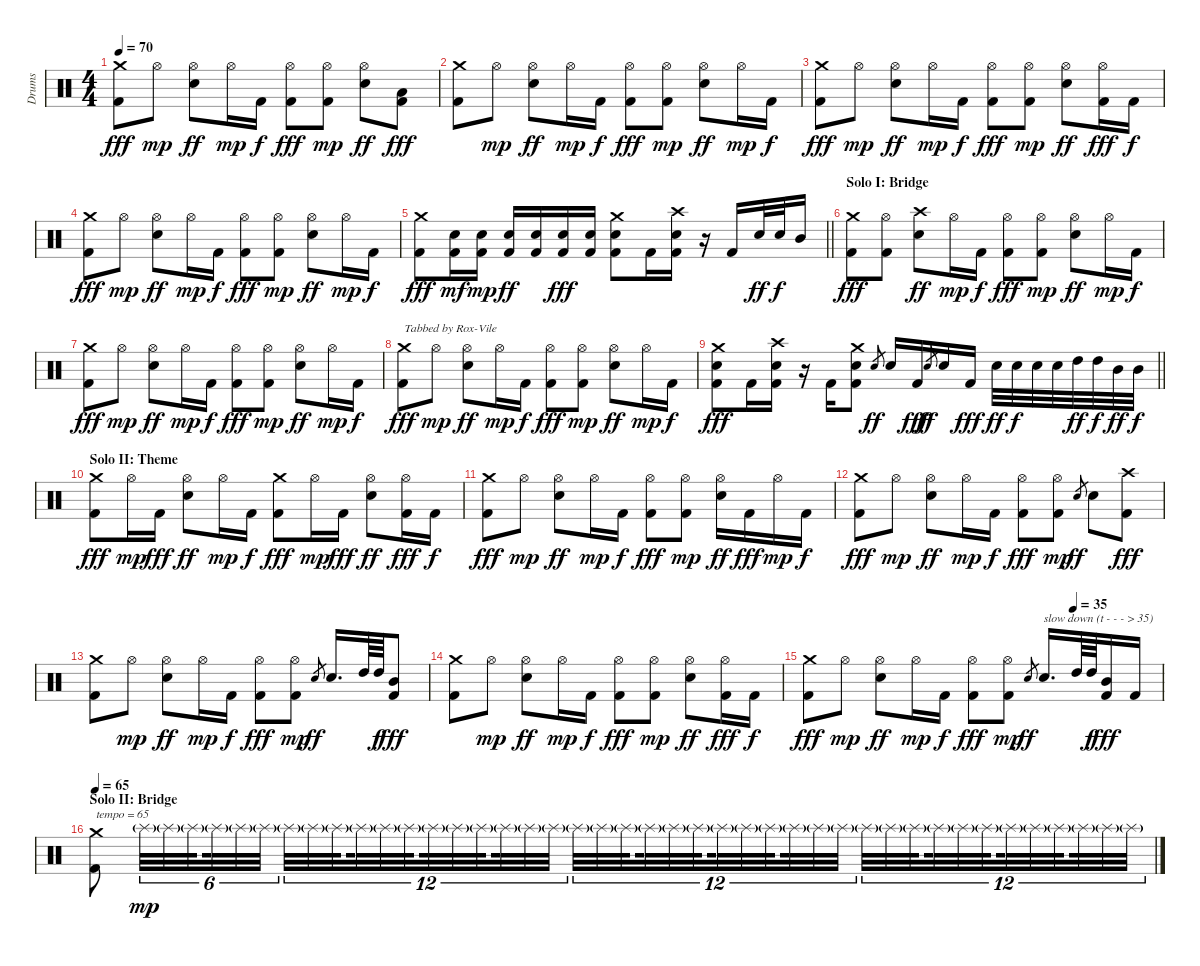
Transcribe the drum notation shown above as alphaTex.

\track ("Drums" "Drums") {instrument percussion}
\staff {score}
\articulation defaults
\ts (4 4)
\tempo 70
\clef neutral
\ks c
("Crash medium (hit)" "Kick (hit) 2").8{dy fff} "Hi-Hat (open)".8{dy mp} ("Hi-Hat (open)" "Snare (hit) 2").8{dy ff} "Hi-Hat (open)".16{dy mp} "Kick (hit) 2".16{dy f} ("Hi-Hat (open)" "Kick (hit) 2").8{dy fff} ("Hi-Hat (open)" "Kick (hit) 2").8{dy mp} ("Hi-Hat (open)" "Snare (hit) 2").8{dy ff} ("Low Tom (hit)" "Kick (hit) 2").8{dy fff} |
("Crash medium (hit)" "Kick (hit) 2").8 "Hi-Hat (open)".8{dy mp} ("Hi-Hat (open)" "Snare (hit) 2").8{dy ff} "Hi-Hat (open)".16{dy mp} "Kick (hit) 2".16{dy f} ("Hi-Hat (open)" "Kick (hit) 2").8{dy fff} ("Hi-Hat (open)" "Kick (hit) 2").8{dy mp} ("Hi-Hat (open)" "Snare (hit) 2").8{dy ff} "Hi-Hat (open)".16{dy mp} "Kick (hit) 2".16{dy f} |
("Crash medium (hit)" "Kick (hit) 2").8{dy fff} "Hi-Hat (open)".8{dy mp} ("Hi-Hat (open)" "Snare (hit) 2").8{dy ff} "Hi-Hat (open)".16{dy mp} "Kick (hit) 2".16{dy f} ("Hi-Hat (open)" "Kick (hit) 2").8{dy fff} ("Hi-Hat (open)" "Kick (hit) 2").8{dy mp} ("Hi-Hat (open)" "Snare (hit) 2").8{dy ff} ("Hi-Hat (open)" "Kick (hit) 2").16{dy fff} "Kick (hit) 2".16{dy f} |
("Crash medium (hit)" "Kick (hit) 2").8{dy fff} "Hi-Hat (open)".8{dy mp} ("Hi-Hat (open)" "Snare (hit) 2").8{dy ff} "Hi-Hat (open)".16{dy mp} "Kick (hit) 2".16{dy f} ("Hi-Hat (open)" "Kick (hit) 2").8{dy fff} ("Hi-Hat (open)" "Kick (hit) 2").8{dy mp} ("Hi-Hat (open)" "Snare (hit) 2").8{dy ff} "Hi-Hat (open)".16{dy mp} "Kick (hit) 2".16{dy f} |
\barLineRight lightlight
("Crash medium (hit)" "Kick (hit) 2").8{dy fff} ("Snare (hit) 2" "Kick (hit) 2").16{dy mf} ("Snare (hit) 2" "Kick (hit) 2").16{dy mp} ("Snare (hit) 2" "Kick (hit) 2").16{dy ff} ("Snare (hit) 2" "Kick (hit) 2").16 ("Snare (hit) 2" "Kick (hit) 2").16{dy fff} ("Snare (hit) 2" "Kick (hit) 2").16 ("Crash medium (hit)" "Snare (hit) 2" "Kick (hit) 2").8 "Kick (hit) 2".16 ("Crash high (hit)" "Snare (hit) 2" "Kick (hit) 2").16 r.16 "Kick (hit) 2".16 "Snare (hit) 2".32{dy ff} "Snare (hit) 2".32{dy f} "Mid Tom (hit)".16 |
\section ("" "Solo I: Bridge")
("Crash medium (hit)" "Kick (hit) 2").8{dy fff} ("Hi-Hat (open)" "Kick (hit) 2").8 ("Crash high (hit)" "Snare (hit) 2").8{dy ff} "Hi-Hat (open)".16{dy mp} "Kick (hit) 2".16{dy f} ("Hi-Hat (open)" "Kick (hit) 2").8{dy fff} ("Hi-Hat (open)" "Kick (hit) 2").8{dy mp} ("Hi-Hat (open)" "Snare (hit) 2").8{dy ff} "Hi-Hat (open)".16{dy mp} "Kick (hit) 2".16{dy f} |
("Crash medium (hit)" "Kick (hit) 2").8{dy fff} "Hi-Hat (open)".8{dy mp} ("Hi-Hat (open)" "Snare (hit) 2").8{dy ff} "Hi-Hat (open)".16{dy mp} "Kick (hit) 2".16{dy f} ("Hi-Hat (open)" "Kick (hit) 2").8{dy fff} ("Hi-Hat (open)" "Kick (hit) 2").8{dy mp} ("Hi-Hat (open)" "Snare (hit) 2").8{dy ff} "Hi-Hat (open)".16{dy mp} "Kick (hit) 2".16{dy f} |
("Crash medium (hit)" "Kick (hit) 2").8{txt "Tabbed by Rox-Vile" dy fff} "Hi-Hat (open)".8{dy mp} ("Hi-Hat (open)" "Snare (hit) 2").8{dy ff} "Hi-Hat (open)".16{dy mp} "Kick (hit) 2".16{dy f} ("Hi-Hat (open)" "Kick (hit) 2").8{dy fff} ("Hi-Hat (open)" "Kick (hit) 2").8{dy mp} ("Hi-Hat (open)" "Snare (hit) 2").8{dy ff} "Hi-Hat (open)".16{dy mp} "Kick (hit) 2".16{dy f} |
\barLineRight lightlight
("Crash medium (hit)" "Snare (hit) 2" "Kick (hit) 2").8{dy fff} "Kick (hit) 2".16 ("Crash high (hit)" "Snare (hit) 2" "Kick (hit) 2").16 r.16 "Kick (hit) 2".16 ("Crash medium (hit)" "Snare (hit) 2" "Kick (hit) 2").8 "Snare (hit) 2".8{gr dy ff} "Snare (hit) 2".16 "Kick (hit) 2".16{dy fff} "Snare (hit) 2".8{gr dy ff} "Snare (hit) 2".16 "Kick (hit) 2".16{dy fff} "Snare (hit) 2".32{dy ff} "Snare (hit) 2".32{dy f} "Snare (hit) 2".32 "Snare (hit) 2".32 "High Tom (hit)".32{dy ff} "High Tom (hit)".32{dy f} "Mid Tom (hit)".32{dy ff} "Mid Tom (hit)".32{dy f} |
\section ("" "Solo II: Theme")
("Crash medium (hit)" "Kick (hit) 2").8{dy fff} "Hi-Hat (open)".16{dy mp} "Kick (hit) 2".16{dy fff} ("Hi-Hat (open)" "Snare (hit) 2").8{dy ff} "Hi-Hat (open)".16{dy mp} "Kick (hit) 2".16{dy f} ("Crash medium (hit)" "Kick (hit) 2").8{dy fff} "Hi-Hat (open)".16{dy mp} "Kick (hit) 2".16{dy fff} ("Hi-Hat (open)" "Snare (hit) 2").8{dy ff} ("Hi-Hat (open)" "Kick (hit) 2").16{dy fff} "Kick (hit) 2".16{dy f} |
("Crash medium (hit)" "Kick (hit) 2").8{dy fff} "Hi-Hat (open)".8{dy mp} ("Hi-Hat (open)" "Snare (hit) 2").8{dy ff} "Hi-Hat (open)".16{dy mp} "Kick (hit) 2".16{dy f} ("Hi-Hat (open)" "Kick (hit) 2").8{dy fff} ("Hi-Hat (open)" "Kick (hit) 2").8{dy mp} ("Hi-Hat (open)" "Snare (hit) 2").16{dy ff} "Kick (hit) 2".16{dy fff} "Hi-Hat (open)".16{dy mp} "Kick (hit) 2".16{dy f} |
("Crash medium (hit)" "Kick (hit) 2").8{dy fff} "Hi-Hat (open)".8{dy mp} ("Hi-Hat (open)" "Snare (hit) 2").8{dy ff} "Hi-Hat (open)".16{dy mp} "Kick (hit) 2".16{dy f} ("Hi-Hat (open)" "Kick (hit) 2").8{dy fff} ("Hi-Hat (open)" "Kick (hit) 2").8{dy mp} "Snare (hit) 2".8{gr dy ff} "Snare (hit) 2".8 ("Crash high (hit)" "Kick (hit) 2").8{dy fff} |
("Crash medium (hit)" "Kick (hit) 2").8 "Hi-Hat (open)".8{dy mp} ("Hi-Hat (open)" "Snare (hit) 2").8{dy ff} "Hi-Hat (open)".16{dy mp} "Kick (hit) 2".16{dy f} ("Hi-Hat (open)" "Kick (hit) 2").8{dy fff} ("Hi-Hat (open)" "Kick (hit) 2").8{dy mp} "Snare (hit) 2".8{gr dy ff} "Snare (hit) 2".16{d} "High Tom (hit)".64 "High Tom (hit)".64{dy f} ("Mid Tom (hit)" "Kick (hit) 2").8{dy fff} |
("Crash medium (hit)" "Kick (hit) 2").8 "Hi-Hat (open)".8{dy mp} ("Hi-Hat (open)" "Snare (hit) 2").8{dy ff} "Hi-Hat (open)".16{dy mp} "Kick (hit) 2".16{dy f} ("Hi-Hat (open)" "Kick (hit) 2").8{dy fff} ("Hi-Hat (open)" "Kick (hit) 2").8{dy mp} ("Hi-Hat (open)" "Snare (hit) 2").8{dy ff} ("Hi-Hat (open)" "Kick (hit) 2").16{dy fff} "Kick (hit) 2".16{dy f} |
\tempo (35 0.75)
("Crash medium (hit)" "Kick (hit) 2").8{dy fff} "Hi-Hat (open)".8{dy mp} ("Hi-Hat (open)" "Snare (hit) 2").8{dy ff} "Hi-Hat (open)".16{dy mp} "Kick (hit) 2".16{dy f} ("Hi-Hat (open)" "Kick (hit) 2").8{dy fff} ("Hi-Hat (open)" "Kick (hit) 2").8{dy mp} "Snare (hit) 2".8{gr dy ff} "Snare (hit) 2".16{d txt "slow down (t - - - > 35)"} "High Tom (hit)".64 "High Tom (hit)".64{dy f} ("Mid Tom (hit)" "Kick (hit) 2").16{dy fff} "Kick (hit) 2".16 |
\section ("" "Solo II: Bridge")
\tempo 65
("Crash medium (hit)" "Kick (hit) 2").8{txt "tempo = 65"} "Splash (hit)"{g}.32{tu (6 4) dy mp} "Splash (hit)"{g}.32{tu (6 4)} "Splash (hit)"{g}.32{tu (6 4) beam splitsecondary} "Splash (hit)"{g}.32{tu (6 4)} "Splash (hit)"{g}.32{tu (6 4)} "Splash (hit)"{g}.32{tu (6 4)} "Splash (hit)"{g}.32{tu (12 8)} "Splash (hit)"{g}.32{tu (12 8)} "Splash (hit)"{g}.32{tu (12 8) beam splitsecondary} "Splash (hit)"{g}.32{tu (12 8)} "Splash (hit)"{g}.32{tu (12 8)} "Splash (hit)"{g}.32{tu (12 8) beam splitsecondary} "Splash (hit)"{g}.32{tu (12 8)} "Splash (hit)"{g}.32{tu (12 8)} "Splash (hit)"{g}.32{tu (12 8) beam splitsecondary} "Splash (hit)"{g}.32{tu (12 8)} "Splash (hit)"{g}.32{tu (12 8)} "Splash (hit)"{g}.32{tu (12 8)} "Splash (hit)"{g}.32{tu (12 8)} "Splash (hit)"{g}.32{tu (12 8)} "Splash (hit)"{g}.32{tu (12 8) beam splitsecondary} "Splash (hit)"{g}.32{tu (12 8)} "Splash (hit)"{g}.32{tu (12 8)} "Splash (hit)"{g}.32{tu (12 8) beam splitsecondary} "Splash (hit)"{g}.32{tu (12 8)} "Splash (hit)"{g}.32{tu (12 8)} "Splash (hit)"{g}.32{tu (12 8) beam splitsecondary} "Splash (hit)"{g}.32{tu (12 8)} "Splash (hit)"{g}.32{tu (12 8)} "Splash (hit)"{g}.32{tu (12 8)} "Splash (hit)"{g}.32{tu (12 8)} "Splash (hit)"{g}.32{tu (12 8)} "Splash (hit)"{g}.32{tu (12 8) beam splitsecondary} "Splash (hit)"{g}.32{tu (12 8)} "Splash (hit)"{g}.32{tu (12 8)} "Splash (hit)"{g}.32{tu (12 8) beam splitsecondary} "Splash (hit)"{g}.32{tu (12 8)} "Splash (hit)"{g}.32{tu (12 8)} "Splash (hit)"{g}.32{tu (12 8) beam splitsecondary} "Splash (hit)"{g}.32{tu (12 8)} "Splash (hit)"{g}.32{tu (12 8)} "Splash (hit)"{g}.32{tu (12 8)}
